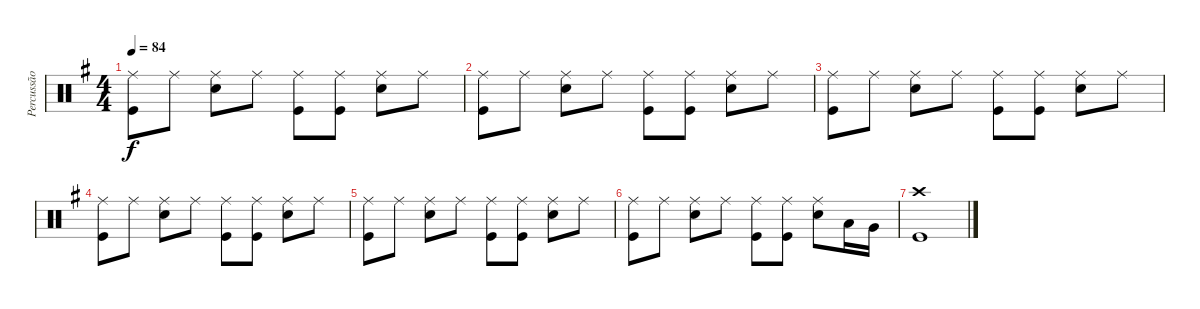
\track ("Percussão" "Percussão") {instrument percussion}
\staff {score}
\articulation defaults
\ts (4 4)
\tempo 84
\clef neutral
\ks g
("Ride (middle)" "Kick (hit)").8{dy f} "Ride (middle)".8 ("Ride (middle)" "Snare (hit) 2").8 "Ride (middle)".8 ("Ride (middle)" "Kick (hit)").8 ("Ride (middle)" "Kick (hit)").8 ("Ride (middle)" "Snare (hit) 2").8 "Ride (middle)".8 |
("Ride (middle)" "Kick (hit)").8 "Ride (middle)".8 ("Ride (middle)" "Snare (hit) 2").8 "Ride (middle)".8 ("Ride (middle)" "Kick (hit)").8 ("Ride (middle)" "Kick (hit)").8 ("Ride (middle)" "Snare (hit) 2").8 "Ride (middle)".8 |
("Ride (middle)" "Kick (hit)").8 "Ride (middle)".8 ("Ride (middle)" "Snare (hit) 2").8 "Ride (middle)".8 ("Ride (middle)" "Kick (hit)").8 ("Ride (middle)" "Kick (hit)").8 ("Ride (middle)" "Snare (hit) 2").8 "Ride (middle)".8 |
("Ride (middle)" "Kick (hit)").8 "Ride (middle)".8 ("Ride (middle)" "Snare (hit) 2").8 "Ride (middle)".8 ("Ride (middle)" "Kick (hit)").8 ("Ride (middle)" "Kick (hit)").8 ("Ride (middle)" "Snare (hit) 2").8 "Ride (middle)".8 |
("Ride (middle)" "Kick (hit)").8 "Ride (middle)".8 ("Ride (middle)" "Snare (hit) 2").8 "Ride (middle)".8 ("Ride (middle)" "Kick (hit)").8 ("Ride (middle)" "Kick (hit)").8 ("Ride (middle)" "Snare (hit) 2").8 "Ride (middle)".8 |
("Ride (middle)" "Kick (hit)").8 "Ride (middle)".8 ("Ride (middle)" "Snare (hit) 2").8 "Ride (middle)".8 ("Ride (middle)" "Kick (hit)").8 ("Ride (middle)" "Kick (hit)").8 ("Ride (middle)" "Snare (hit) 2").8 "Low Tom (hit)".16 "Very Low Tom (hit)".16 |
("Crash high (hit)" "Kick (hit)").1
